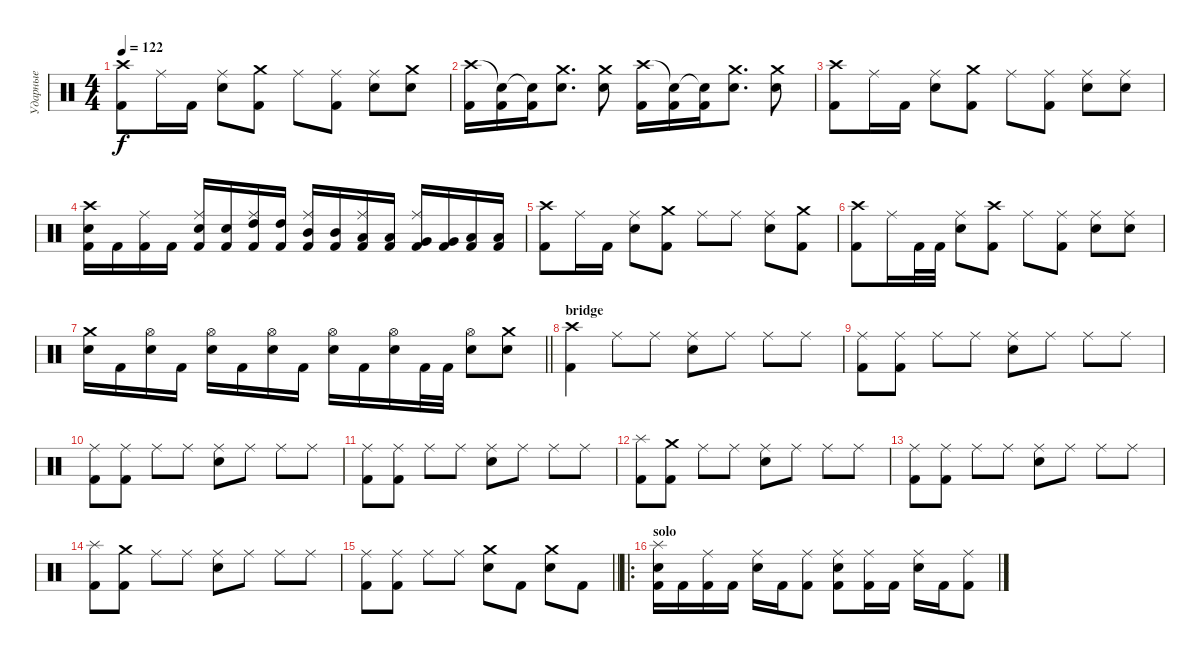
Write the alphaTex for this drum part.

\track ("Ударные" "Ударные") {instrument percussion}
\staff {score}
\articulation defaults
\ts (4 4)
\tempo 122
\clef neutral
\ks c
("Crash high (hit)" "Kick (hit) 2").8{dy f} "Ride (middle)".16 "Kick (hit) 2".16 ("Ride (middle)" "Electric Snare (hit)").8 ("Crash medium (hit)" "Kick (hit) 2").8 "Ride (middle)".8 ("Ride (middle)" "Kick (hit) 2").8 ("Ride (middle)" "Electric Snare (hit)").8 ("Crash medium (hit)" "Electric Snare (hit)").8 |
("Crash high (hit)" "Kick (hit) 2").16 ("Snare (hit)"{t} "Kick (hit) 2").16 ("Snare (hit)"{t} "Kick (hit) 2").16 ("Crash medium (hit)" "Electric Snare (hit)").8{d} ("Crash medium (hit)" "Electric Snare (hit)").8 ("Crash high (hit)" "Kick (hit) 2").16 ("Snare (hit)"{t} "Kick (hit) 2").16 ("Snare (hit)"{t} "Kick (hit) 2").16 ("Crash medium (hit)" "Electric Snare (hit)").8{d} ("Crash medium (hit)" "Electric Snare (hit)").8 |
("Crash high (hit)" "Kick (hit) 2").8 "Ride (middle)".16 "Kick (hit) 2".16 ("Ride (middle)" "Electric Snare (hit)").8 ("Crash medium (hit)" "Kick (hit) 2").8 "Ride (middle)".8 ("Ride (middle)" "Kick (hit) 2").8 ("Ride (middle)" "Electric Snare (hit)").8 ("Ride (middle)" "Electric Snare (hit)").8 |
("Crash high (hit)" "Electric Snare (hit)" "Kick (hit) 2").16 "Kick (hit) 2".16 ("Ride (middle)" "Kick (hit) 2").16 "Kick (hit) 2".16 ("Ride (middle)" "Electric Snare (hit)" "Kick (hit) 2").16 ("Electric Snare (hit)" "Kick (hit) 2").16 ("Ride (middle)" "High Tom (hit)" "Kick (hit) 2").16 ("High Tom (hit)" "Kick (hit) 2").16 ("Ride (middle)" "Mid Tom (hit)" "Kick (hit) 2").16 ("Mid Tom (hit)" "Kick (hit) 2").16 ("Ride (middle)" "Low Tom (hit)" "Kick (hit) 2").16 ("Low Tom (hit)" "Kick (hit) 2").16 ("Ride (middle)" "Very Low Tom (hit)" "Kick (hit) 2").16 ("Very Low Tom (hit)" "Kick (hit) 2").16 ("Low Floor Tom (hit)" "Kick (hit) 2").16 ("Low Floor Tom (hit)" "Kick (hit) 2").16 |
("Crash high (hit)" "Kick (hit) 2").8 "Ride (middle)".16 "Kick (hit) 2".16 ("Ride (middle)" "Electric Snare (hit)").8 ("Crash medium (hit)" "Kick (hit) 2").8 "Ride (middle)".8 "Ride (middle)".8 ("Ride (middle)" "Electric Snare (hit)").8 ("Crash medium (hit)" "Kick (hit) 2").8 |
("Crash high (hit)" "Kick (hit) 2").8 "Ride (middle)".16 "Kick (hit) 2".32 "Kick (hit) 2".32 ("Ride (middle)" "Electric Snare (hit)").8 ("Crash high (hit)" "Kick (hit) 2").8 "Ride (middle)".8 ("Ride (middle)" "Kick (hit) 2").8 ("Ride (middle)" "Electric Snare (hit)").8 ("Ride (middle)" "Electric Snare (hit)").8 |
\barLineRight lightlight
("Crash medium (hit)" "Electric Snare (hit)").16 "Kick (hit) 2".16 ("Hi-Hat (open)" "Electric Snare (hit)").16 "Kick (hit) 2".16 ("Hi-Hat (open)" "Electric Snare (hit)").16 "Kick (hit) 2".16 ("Hi-Hat (open)" "Electric Snare (hit)").16 "Kick (hit) 2".16 ("Hi-Hat (open)" "Electric Snare (hit)").16 "Kick (hit) 2".16 ("Hi-Hat (open)" "Electric Snare (hit)").16 "Kick (hit) 2".32 "Kick (hit) 2".32 ("Hi-Hat (open)" "Electric Snare (hit)").8 ("Crash medium (hit)" "Electric Snare (hit)").8 |
\section ("" "bridge")
("Crash high (hit)" "Kick (hit) 2").4 "Ride (middle)".8 "Ride (middle)".8 ("Ride (middle)" "Electric Snare (hit)").8 "Ride (middle)".8 "Ride (middle)".8 "Ride (middle)".8 |
("Ride (middle)" "Kick (hit) 2").8 ("Ride (middle)" "Kick (hit) 2").8 "Ride (middle)".8 "Ride (middle)".8 ("Ride (middle)" "Electric Snare (hit)").8 "Ride (middle)".8 "Ride (middle)".8 "Ride (middle)".8 |
("Ride (middle)" "Kick (hit) 2").8 ("Ride (middle)" "Kick (hit) 2").8 "Ride (middle)".8 "Ride (middle)".8 ("Ride (middle)" "Electric Snare (hit)").8 "Ride (middle)".8 "Ride (middle)".8 "Ride (middle)".8 |
("Ride (middle)" "Kick (hit) 2").8 ("Ride (middle)" "Kick (hit) 2").8 "Ride (middle)".8 "Ride (middle)".8 ("Ride (middle)" "Electric Snare (hit)").8 "Ride (middle)".8 "Ride (middle)".8 "Ride (middle)".8 |
("Splash (hit)" "Kick (hit) 2").8 ("Crash medium (hit)" "Kick (hit) 2").8 "Ride (middle)".8 "Ride (middle)".8 ("Ride (middle)" "Electric Snare (hit)").8 "Ride (middle)".8 "Ride (middle)".8 "Ride (middle)".8 |
("Ride (middle)" "Kick (hit) 2").8 ("Ride (middle)" "Kick (hit) 2").8 "Ride (middle)".8 "Ride (middle)".8 ("Ride (middle)" "Electric Snare (hit)").8 "Ride (middle)".8 "Ride (middle)".8 "Ride (middle)".8 |
("Splash (hit)" "Kick (hit) 2").8 ("Crash medium (hit)" "Kick (hit) 2").8 "Ride (middle)".8 "Ride (middle)".8 ("Ride (middle)" "Electric Snare (hit)").8 "Ride (middle)".8 "Ride (middle)".8 "Ride (middle)".8 |
\barLineRight lightlight
("Ride (middle)" "Kick (hit) 2").8 ("Ride (middle)" "Kick (hit) 2").8 "Ride (middle)".8 "Ride (middle)".8 ("Crash medium (hit)" "Electric Snare (hit)").8 "Kick (hit) 2".8 ("Crash medium (hit)" "Electric Snare (hit)").8 "Kick (hit) 2".8 |
\ro
\section ("" "solo")
("Splash (hit)" "Electric Snare (hit)" "Kick (hit) 2").16 "Kick (hit) 2".16 ("Ride (middle)" "Kick (hit) 2").16 "Kick (hit) 2".16 ("Ride (middle)" "Electric Snare (hit)").16 "Kick (hit) 2".16 ("Ride (middle)" "Kick (hit) 2").8 ("Ride (middle)" "Electric Snare (hit)" "Kick (hit) 2").8 ("Ride (middle)" "Kick (hit) 2").16 "Kick (hit) 2".16 ("Ride (middle)" "Electric Snare (hit)").16 "Kick (hit) 2".16 ("Ride (middle)" "Kick (hit) 2").8
